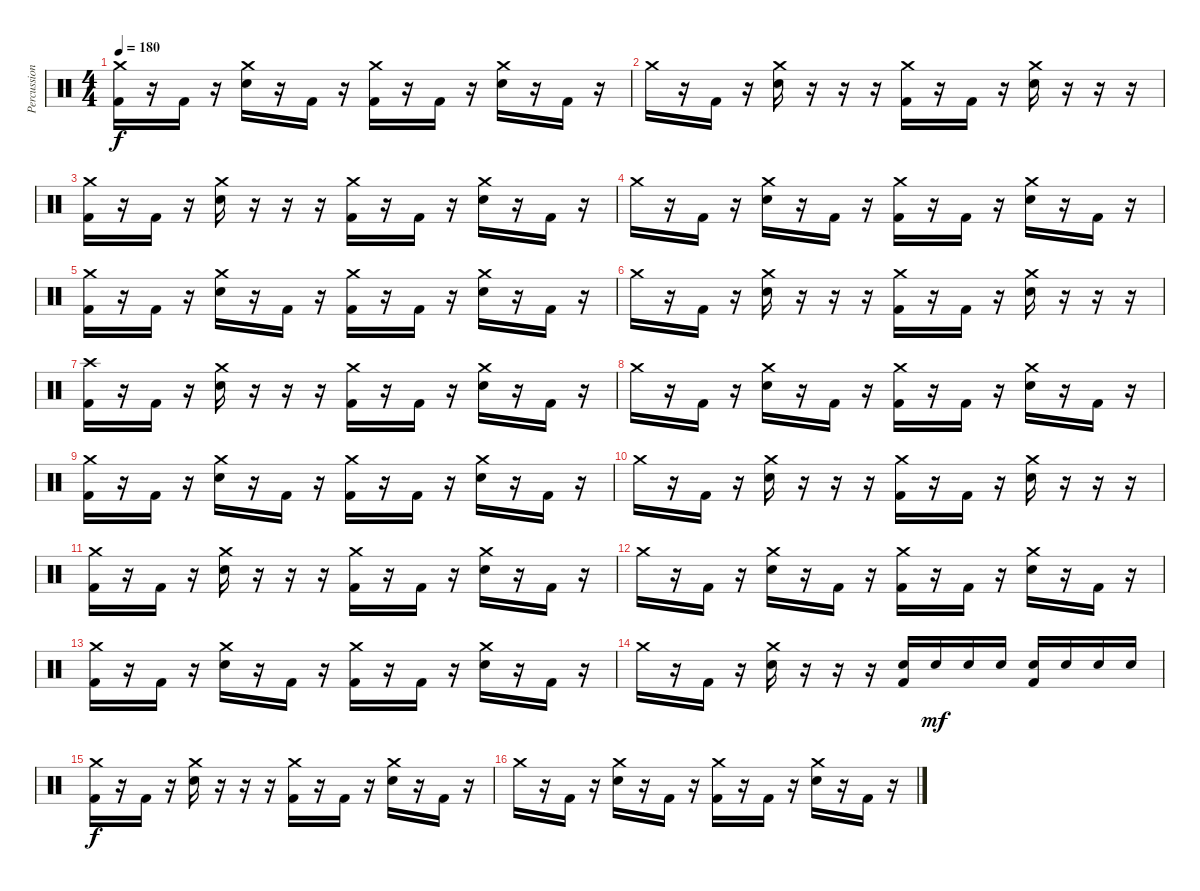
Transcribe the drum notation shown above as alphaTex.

\track ("Percussion" "Percussion") {instrument percussion}
\staff {score}
\articulation defaults
\ts (4 4)
\tempo 180
\clef neutral
\ks c
("Crash medium (hit)" "Kick (hit) 2").16{dy f} r.16 "Kick (hit) 2".16 r.16 ("Crash medium (hit)" "Snare (hit) 2").16 r.16 "Kick (hit) 2".16 r.16 ("Crash medium (hit)" "Kick (hit) 2").16 r.16 "Kick (hit) 2".16 r.16 ("Crash medium (hit)" "Snare (hit) 2").16 r.16 "Kick (hit) 2".16 r.16 |
"Crash medium (hit)".16 r.16 "Kick (hit) 2".16 r.16 ("Crash medium (hit)" "Snare (hit) 2").16 r.16 r.16 r.16 ("Crash medium (hit)" "Kick (hit) 2").16 r.16 "Kick (hit) 2".16 r.16 ("Crash medium (hit)" "Snare (hit) 2").16 r.16 r.16 r.16 |
("Crash medium (hit)" "Kick (hit) 2").16 r.16 "Kick (hit) 2".16 r.16 ("Crash medium (hit)" "Snare (hit) 2").16 r.16 r.16 r.16 ("Crash medium (hit)" "Kick (hit) 2").16 r.16 "Kick (hit) 2".16 r.16 ("Crash medium (hit)" "Snare (hit) 2").16 r.16 "Kick (hit) 2".16 r.16 |
"Crash medium (hit)".16 r.16 "Kick (hit) 2".16 r.16 ("Crash medium (hit)" "Snare (hit) 2").16 r.16 "Kick (hit) 2".16 r.16 ("Crash medium (hit)" "Kick (hit) 2").16 r.16 "Kick (hit) 2".16 r.16 ("Crash medium (hit)" "Snare (hit) 2").16 r.16 "Kick (hit) 2".16 r.16 |
("Crash medium (hit)" "Kick (hit) 2").16 r.16 "Kick (hit) 2".16 r.16 ("Crash medium (hit)" "Snare (hit) 2").16 r.16 "Kick (hit) 2".16 r.16 ("Crash medium (hit)" "Kick (hit) 2").16 r.16 "Kick (hit) 2".16 r.16 ("Crash medium (hit)" "Snare (hit) 2").16 r.16 "Kick (hit) 2".16 r.16 |
"Crash medium (hit)".16 r.16 "Kick (hit) 2".16 r.16 ("Crash medium (hit)" "Snare (hit) 2").16 r.16 r.16 r.16 ("Crash medium (hit)" "Kick (hit) 2").16 r.16 "Kick (hit) 2".16 r.16 ("Crash medium (hit)" "Snare (hit) 2").16 r.16 r.16 r.16 |
("Crash high (hit)" "Kick (hit) 2").16 r.16 "Kick (hit) 2".16 r.16 ("Crash medium (hit)" "Snare (hit) 2").16 r.16 r.16 r.16 ("Crash medium (hit)" "Kick (hit) 2").16 r.16 "Kick (hit) 2".16 r.16 ("Crash medium (hit)" "Snare (hit) 2").16 r.16 "Kick (hit) 2".16 r.16 |
"Crash medium (hit)".16 r.16 "Kick (hit) 2".16 r.16 ("Crash medium (hit)" "Snare (hit) 2").16 r.16 "Kick (hit) 2".16 r.16 ("Crash medium (hit)" "Kick (hit) 2").16 r.16 "Kick (hit) 2".16 r.16 ("Crash medium (hit)" "Snare (hit) 2").16 r.16 "Kick (hit) 2".16 r.16 |
("Crash medium (hit)" "Kick (hit) 2").16 r.16 "Kick (hit) 2".16 r.16 ("Crash medium (hit)" "Snare (hit) 2").16 r.16 "Kick (hit) 2".16 r.16 ("Crash medium (hit)" "Kick (hit) 2").16 r.16 "Kick (hit) 2".16 r.16 ("Crash medium (hit)" "Snare (hit) 2").16 r.16 "Kick (hit) 2".16 r.16 |
"Crash medium (hit)".16 r.16 "Kick (hit) 2".16 r.16 ("Crash medium (hit)" "Snare (hit) 2").16 r.16 r.16 r.16 ("Crash medium (hit)" "Kick (hit) 2").16 r.16 "Kick (hit) 2".16 r.16 ("Crash medium (hit)" "Snare (hit) 2").16 r.16 r.16 r.16 |
("Crash medium (hit)" "Kick (hit) 2").16 r.16 "Kick (hit) 2".16 r.16 ("Crash medium (hit)" "Snare (hit) 2").16 r.16 r.16 r.16 ("Crash medium (hit)" "Kick (hit) 2").16 r.16 "Kick (hit) 2".16 r.16 ("Crash medium (hit)" "Snare (hit) 2").16 r.16 "Kick (hit) 2".16 r.16 |
"Crash medium (hit)".16 r.16 "Kick (hit) 2".16 r.16 ("Crash medium (hit)" "Snare (hit) 2").16 r.16 "Kick (hit) 2".16 r.16 ("Crash medium (hit)" "Kick (hit) 2").16 r.16 "Kick (hit) 2".16 r.16 ("Crash medium (hit)" "Snare (hit) 2").16 r.16 "Kick (hit) 2".16 r.16 |
("Crash medium (hit)" "Kick (hit) 2").16 r.16 "Kick (hit) 2".16 r.16 ("Crash medium (hit)" "Snare (hit) 2").16 r.16 "Kick (hit) 2".16 r.16 ("Crash medium (hit)" "Kick (hit) 2").16 r.16 "Kick (hit) 2".16 r.16 ("Crash medium (hit)" "Snare (hit) 2").16 r.16 "Kick (hit) 2".16 r.16 |
"Crash medium (hit)".16 r.16 "Kick (hit) 2".16 r.16 ("Crash medium (hit)" "Snare (hit) 2").16 r.16 r.16 r.16 ("Snare (hit) 2" "Kick (hit) 2").16 "Snare (hit) 2".16{dy mf} "Snare (hit) 2".16 "Snare (hit) 2".16 ("Snare (hit) 2" "Kick (hit) 2").16 "Snare (hit) 2".16 "Snare (hit) 2".16 "Snare (hit) 2".16 |
("Crash medium (hit)" "Kick (hit) 2").16{dy f} r.16 "Kick (hit) 2".16 r.16 ("Crash medium (hit)" "Snare (hit) 2").16 r.16 r.16 r.16 ("Crash medium (hit)" "Kick (hit) 2").16 r.16 "Kick (hit) 2".16 r.16 ("Crash medium (hit)" "Snare (hit) 2").16 r.16 "Kick (hit) 2".16 r.16 |
"Crash medium (hit)".16 r.16 "Kick (hit) 2".16 r.16 ("Crash medium (hit)" "Snare (hit) 2").16 r.16 "Kick (hit) 2".16 r.16 ("Crash medium (hit)" "Kick (hit) 2").16 r.16 "Kick (hit) 2".16 r.16 ("Crash medium (hit)" "Snare (hit) 2").16 r.16 "Kick (hit) 2".16 r.16
